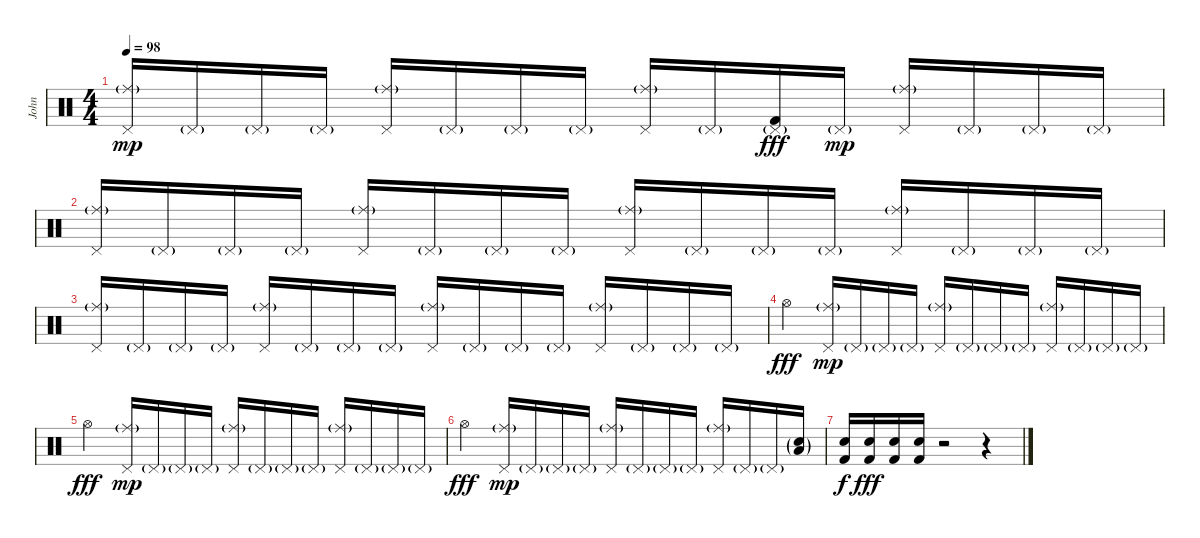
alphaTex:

\track ("John" "John") {instrument percussion}
\staff {score}
\articulation defaults
\ts (4 4)
\tempo 98
\clef neutral
\ks c
("Ride (middle)"{g} "Pedal Hi-Hat (hit)").16{dy mp} "Pedal Hi-Hat (hit)"{g}.16 "Pedal Hi-Hat (hit)"{g}.16 "Pedal Hi-Hat (hit)"{g}.16 ("Ride (middle)"{g} "Pedal Hi-Hat (hit)").16 "Pedal Hi-Hat (hit)"{g}.16 "Pedal Hi-Hat (hit)"{g}.16 "Pedal Hi-Hat (hit)"{g}.16 ("Ride (middle)"{g} "Pedal Hi-Hat (hit)").16 "Pedal Hi-Hat (hit)"{g}.16 ("Pedal Hi-Hat (hit)"{g} "Kick (hit) 2").16{dy fff volume 16} "Pedal Hi-Hat (hit)"{g}.16{dy mp volume 6} ("Ride (middle)"{g} "Pedal Hi-Hat (hit)").16 "Pedal Hi-Hat (hit)"{g}.16 "Pedal Hi-Hat (hit)"{g}.16 "Pedal Hi-Hat (hit)"{g}.16 |
("Ride (middle)"{g} "Pedal Hi-Hat (hit)").16 "Pedal Hi-Hat (hit)"{g}.16 "Pedal Hi-Hat (hit)"{g}.16 "Pedal Hi-Hat (hit)"{g}.16 ("Ride (middle)"{g} "Pedal Hi-Hat (hit)").16 "Pedal Hi-Hat (hit)"{g}.16 "Pedal Hi-Hat (hit)"{g}.16 "Pedal Hi-Hat (hit)"{g}.16 ("Ride (middle)"{g} "Pedal Hi-Hat (hit)").16 "Pedal Hi-Hat (hit)"{g}.16 "Pedal Hi-Hat (hit)"{g}.16 "Pedal Hi-Hat (hit)"{g}.16 ("Ride (middle)"{g} "Pedal Hi-Hat (hit)").16 "Pedal Hi-Hat (hit)"{g}.16 "Pedal Hi-Hat (hit)"{g}.16 "Pedal Hi-Hat (hit)"{g}.16 |
("Ride (middle)"{g} "Pedal Hi-Hat (hit)").16 "Pedal Hi-Hat (hit)"{g}.16 "Pedal Hi-Hat (hit)"{g}.16 "Pedal Hi-Hat (hit)"{g}.16 ("Ride (middle)"{g} "Pedal Hi-Hat (hit)").16 "Pedal Hi-Hat (hit)"{g}.16 "Pedal Hi-Hat (hit)"{g}.16 "Pedal Hi-Hat (hit)"{g}.16 ("Ride (middle)"{g} "Pedal Hi-Hat (hit)").16 "Pedal Hi-Hat (hit)"{g}.16 "Pedal Hi-Hat (hit)"{g}.16 "Pedal Hi-Hat (hit)"{g}.16 ("Ride (middle)"{g} "Pedal Hi-Hat (hit)").16 "Pedal Hi-Hat (hit)"{g}.16 "Pedal Hi-Hat (hit)"{g}.16 "Pedal Hi-Hat (hit)"{g}.16 |
"Hi-Hat (open)".4{dy fff} ("Ride (middle)"{g} "Pedal Hi-Hat (hit)").16{dy mp} "Pedal Hi-Hat (hit)"{g}.16 "Pedal Hi-Hat (hit)"{g}.16 "Pedal Hi-Hat (hit)"{g}.16 ("Ride (middle)"{g} "Pedal Hi-Hat (hit)").16 "Pedal Hi-Hat (hit)"{g}.16 "Pedal Hi-Hat (hit)"{g}.16 "Pedal Hi-Hat (hit)"{g}.16 ("Ride (middle)"{g} "Pedal Hi-Hat (hit)").16 "Pedal Hi-Hat (hit)"{g}.16 "Pedal Hi-Hat (hit)"{g}.16 "Pedal Hi-Hat (hit)"{g}.16 |
"Hi-Hat (open)".4{dy fff} ("Ride (middle)"{g} "Pedal Hi-Hat (hit)").16{dy mp} "Pedal Hi-Hat (hit)"{g}.16 "Pedal Hi-Hat (hit)"{g}.16 "Pedal Hi-Hat (hit)"{g}.16 ("Ride (middle)"{g} "Pedal Hi-Hat (hit)").16 "Pedal Hi-Hat (hit)"{g}.16 "Pedal Hi-Hat (hit)"{g}.16 "Pedal Hi-Hat (hit)"{g}.16 ("Ride (middle)"{g} "Pedal Hi-Hat (hit)").16 "Pedal Hi-Hat (hit)"{g}.16 "Pedal Hi-Hat (hit)"{g}.16 "Pedal Hi-Hat (hit)"{g}.16 |
"Hi-Hat (open)".4{dy fff} ("Ride (middle)"{g} "Pedal Hi-Hat (hit)").16{dy mp} "Pedal Hi-Hat (hit)"{g}.16 "Pedal Hi-Hat (hit)"{g}.16 "Pedal Hi-Hat (hit)"{g}.16 ("Ride (middle)"{g} "Pedal Hi-Hat (hit)").16 "Pedal Hi-Hat (hit)"{g}.16 "Pedal Hi-Hat (hit)"{g}.16 "Pedal Hi-Hat (hit)"{g}.16 ("Ride (middle)"{g} "Pedal Hi-Hat (hit)").16 "Pedal Hi-Hat (hit)"{g}.16 "Pedal Hi-Hat (hit)"{g}.16 ("Electric Snare (hit)"{g} "Low Tom (hit)"{g}).16 |
("Electric Snare (hit)" "Kick (hit) 2").16{dy f volume 13} ("Electric Snare (hit)" "Kick (hit) 2").16{dy fff} ("Electric Snare (hit)" "Kick (hit) 2").16 ("Electric Snare (hit)" "Kick (hit) 2").16 r.2 r.4
